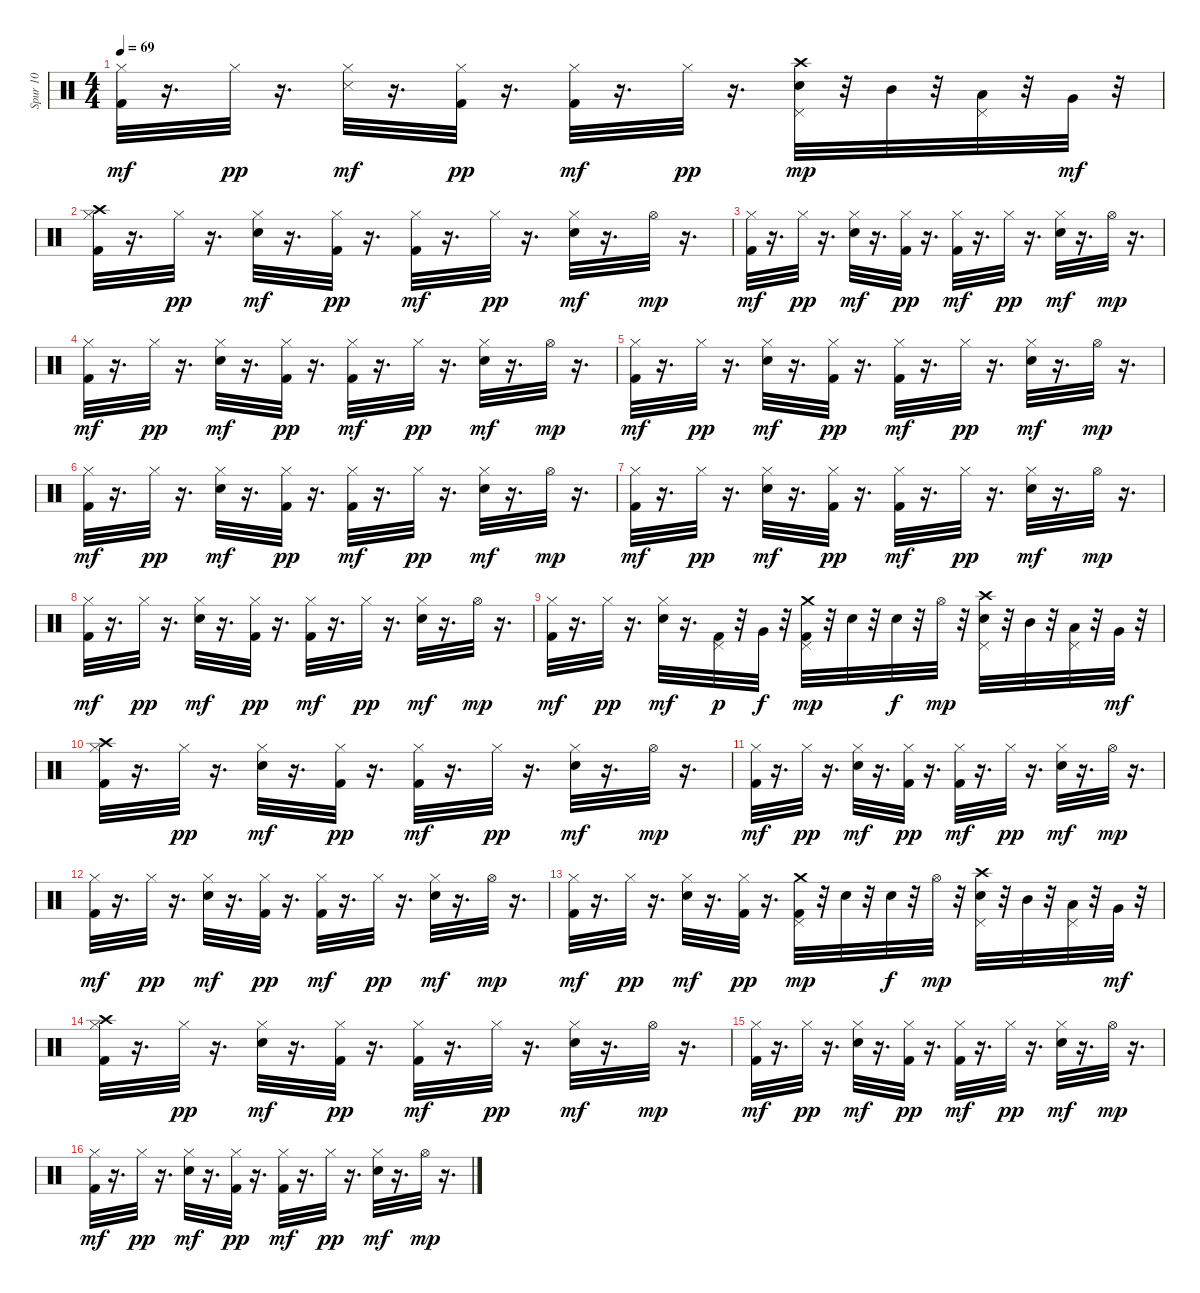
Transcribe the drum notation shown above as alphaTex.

\track ("Spur 10" "Spur 10") {instrument percussion}
\staff {score}
\articulation defaults
\ts (4 4)
\tempo 69
\clef neutral
\ks c
("Kick (hit) 2" "Hi-Hat (closed)").32{dy mf} r.16{d} "Hi-Hat (closed)".32{dy pp} r.16{d} ("Snare (side stick) 3" "Hi-Hat (closed)").32{dy mf} r.16{d} ("Kick (hit) 2" "Hi-Hat (closed)").32{dy pp} r.16{d} ("Kick (hit) 2" "Hi-Hat (closed)").32{dy mf} r.16{d} "Hi-Hat (closed)".32{dy pp} r.16{d} ("Electric Snare (hit)" "Pedal Hi-Hat (hit)" "Crash high (hit)").32{dy mp} r.32 "Mid Tom (hit)".32 r.32 ("Pedal Hi-Hat (hit)" "Low Tom (hit)").32 r.32 "Very Low Tom (hit)".32{dy mf} r.32 |
("Crash high (hit)" "Kick (hit) 2" "Hi-Hat (closed)").32 r.16{d} "Hi-Hat (closed)".32{dy pp} r.16{d} ("Electric Snare (hit)" "Hi-Hat (closed)").32{dy mf} r.16{d} ("Kick (hit) 2" "Hi-Hat (closed)").32{dy pp} r.16{d} ("Kick (hit) 2" "Hi-Hat (closed)").32{dy mf} r.16{d} "Hi-Hat (closed)".32{dy pp} r.16{d} ("Electric Snare (hit)" "Hi-Hat (closed)").32{dy mf} r.16{d} "Hi-Hat (open)".32{dy mp} r.16{d} |
("Kick (hit) 2" "Hi-Hat (closed)").32{dy mf} r.16{d} "Hi-Hat (closed)".32{dy pp} r.16{d} ("Electric Snare (hit)" "Hi-Hat (closed)").32{dy mf} r.16{d} ("Kick (hit) 2" "Hi-Hat (closed)").32{dy pp} r.16{d} ("Kick (hit) 2" "Hi-Hat (closed)").32{dy mf} r.16{d} "Hi-Hat (closed)".32{dy pp} r.16{d} ("Electric Snare (hit)" "Hi-Hat (closed)").32{dy mf} r.16{d} "Hi-Hat (open)".32{dy mp} r.16{d} |
("Kick (hit) 2" "Hi-Hat (closed)").32{dy mf} r.16{d} "Hi-Hat (closed)".32{dy pp} r.16{d} ("Electric Snare (hit)" "Hi-Hat (closed)").32{dy mf} r.16{d} ("Kick (hit) 2" "Hi-Hat (closed)").32{dy pp} r.16{d} ("Kick (hit) 2" "Hi-Hat (closed)").32{dy mf} r.16{d} "Hi-Hat (closed)".32{dy pp} r.16{d} ("Electric Snare (hit)" "Hi-Hat (closed)").32{dy mf} r.16{d} "Hi-Hat (open)".32{dy mp} r.16{d} |
("Kick (hit) 2" "Hi-Hat (closed)").32{dy mf} r.16{d} "Hi-Hat (closed)".32{dy pp} r.16{d} ("Electric Snare (hit)" "Hi-Hat (closed)").32{dy mf} r.16{d} ("Kick (hit) 2" "Hi-Hat (closed)").32{dy pp} r.16{d} ("Kick (hit) 2" "Hi-Hat (closed)").32{dy mf} r.16{d} "Hi-Hat (closed)".32{dy pp} r.16{d} ("Electric Snare (hit)" "Hi-Hat (closed)").32{dy mf} r.16{d} "Hi-Hat (open)".32{dy mp} r.16{d} |
("Kick (hit) 2" "Hi-Hat (closed)").32{dy mf} r.16{d} "Hi-Hat (closed)".32{dy pp} r.16{d} ("Electric Snare (hit)" "Hi-Hat (closed)").32{dy mf} r.16{d} ("Kick (hit) 2" "Hi-Hat (closed)").32{dy pp} r.16{d} ("Kick (hit) 2" "Hi-Hat (closed)").32{dy mf} r.16{d} "Hi-Hat (closed)".32{dy pp} r.16{d} ("Electric Snare (hit)" "Hi-Hat (closed)").32{dy mf} r.16{d} "Hi-Hat (open)".32{dy mp} r.16{d} |
("Kick (hit) 2" "Hi-Hat (closed)").32{dy mf} r.16{d} "Hi-Hat (closed)".32{dy pp} r.16{d} ("Electric Snare (hit)" "Hi-Hat (closed)").32{dy mf} r.16{d} ("Kick (hit) 2" "Hi-Hat (closed)").32{dy pp} r.16{d} ("Kick (hit) 2" "Hi-Hat (closed)").32{dy mf} r.16{d} "Hi-Hat (closed)".32{dy pp} r.16{d} ("Electric Snare (hit)" "Hi-Hat (closed)").32{dy mf} r.16{d} "Hi-Hat (open)".32{dy mp} r.16{d} |
("Kick (hit) 2" "Hi-Hat (closed)").32{dy mf} r.16{d} "Hi-Hat (closed)".32{dy pp} r.16{d} ("Electric Snare (hit)" "Hi-Hat (closed)").32{dy mf} r.16{d} ("Kick (hit) 2" "Hi-Hat (closed)").32{dy pp} r.16{d} ("Kick (hit) 2" "Hi-Hat (closed)").32{dy mf} r.16{d} "Hi-Hat (closed)".32{dy pp} r.16{d} ("Electric Snare (hit)" "Hi-Hat (closed)").32{dy mf} r.16{d} "Hi-Hat (open)".32{dy mp} r.16{d} |
("Kick (hit) 2" "Hi-Hat (closed)").32{dy mf} r.16{d} "Hi-Hat (closed)".32{dy pp} r.16{d} ("Electric Snare (hit)" "Hi-Hat (closed)").32{dy mf} r.16{d} ("Kick (hit) 2" "Pedal Hi-Hat (hit)").32{dy p} r.32 "Very Low Tom (hit)".32{dy f} r.32 ("Kick (hit) 2" "Pedal Hi-Hat (hit)" "Crash medium (hit)").32{dy mp} r.32 "Electric Snare (hit)".32 r.32 "Electric Snare (hit)".32{dy f} r.32 "Hi-Hat (open)".32{dy mp} r.32 ("Electric Snare (hit)" "Pedal Hi-Hat (hit)" "Crash high (hit)").32 r.32 "Mid Tom (hit)".32 r.32 ("Pedal Hi-Hat (hit)" "Low Tom (hit)").32 r.32 "Very Low Tom (hit)".32{dy mf} r.32 |
("Crash high (hit)" "Kick (hit) 2" "Hi-Hat (closed)").32 r.16{d} "Hi-Hat (closed)".32{dy pp} r.16{d} ("Electric Snare (hit)" "Hi-Hat (closed)").32{dy mf} r.16{d} ("Kick (hit) 2" "Hi-Hat (closed)").32{dy pp} r.16{d} ("Kick (hit) 2" "Hi-Hat (closed)").32{dy mf} r.16{d} "Hi-Hat (closed)".32{dy pp} r.16{d} ("Electric Snare (hit)" "Hi-Hat (closed)").32{dy mf} r.16{d} "Hi-Hat (open)".32{dy mp} r.16{d} |
("Kick (hit) 2" "Hi-Hat (closed)").32{dy mf} r.16{d} "Hi-Hat (closed)".32{dy pp} r.16{d} ("Electric Snare (hit)" "Hi-Hat (closed)").32{dy mf} r.16{d} ("Kick (hit) 2" "Hi-Hat (closed)").32{dy pp} r.16{d} ("Kick (hit) 2" "Hi-Hat (closed)").32{dy mf} r.16{d} "Hi-Hat (closed)".32{dy pp} r.16{d} ("Electric Snare (hit)" "Hi-Hat (closed)").32{dy mf} r.16{d} "Hi-Hat (open)".32{dy mp} r.16{d} |
("Kick (hit) 2" "Hi-Hat (closed)").32{dy mf} r.16{d} "Hi-Hat (closed)".32{dy pp} r.16{d} ("Electric Snare (hit)" "Hi-Hat (closed)").32{dy mf} r.16{d} ("Kick (hit) 2" "Hi-Hat (closed)").32{dy pp} r.16{d} ("Kick (hit) 2" "Hi-Hat (closed)").32{dy mf} r.16{d} "Hi-Hat (closed)".32{dy pp} r.16{d} ("Electric Snare (hit)" "Hi-Hat (closed)").32{dy mf} r.16{d} "Hi-Hat (open)".32{dy mp} r.16{d} |
("Kick (hit) 2" "Hi-Hat (closed)").32{dy mf} r.16{d} "Hi-Hat (closed)".32{dy pp} r.16{d} ("Electric Snare (hit)" "Hi-Hat (closed)").32{dy mf} r.16{d} ("Kick (hit) 2" "Hi-Hat (closed)").32{dy pp} r.16{d} ("Kick (hit) 2" "Pedal Hi-Hat (hit)" "Crash medium (hit)").32{dy mp} r.32 "Electric Snare (hit)".32 r.32 "Electric Snare (hit)".32{dy f} r.32 "Hi-Hat (open)".32{dy mp} r.32 ("Electric Snare (hit)" "Pedal Hi-Hat (hit)" "Crash high (hit)").32 r.32 "Mid Tom (hit)".32 r.32 ("Pedal Hi-Hat (hit)" "Low Tom (hit)").32 r.32 "Very Low Tom (hit)".32{dy mf} r.32 |
("Crash high (hit)" "Kick (hit) 2" "Hi-Hat (closed)").32 r.16{d} "Hi-Hat (closed)".32{dy pp} r.16{d} ("Electric Snare (hit)" "Hi-Hat (closed)").32{dy mf} r.16{d} ("Kick (hit) 2" "Hi-Hat (closed)").32{dy pp} r.16{d} ("Kick (hit) 2" "Hi-Hat (closed)").32{dy mf} r.16{d} "Hi-Hat (closed)".32{dy pp} r.16{d} ("Electric Snare (hit)" "Hi-Hat (closed)").32{dy mf} r.16{d} "Hi-Hat (open)".32{dy mp} r.16{d} |
("Kick (hit) 2" "Hi-Hat (closed)").32{dy mf} r.16{d} "Hi-Hat (closed)".32{dy pp} r.16{d} ("Electric Snare (hit)" "Hi-Hat (closed)").32{dy mf} r.16{d} ("Kick (hit) 2" "Hi-Hat (closed)").32{dy pp} r.16{d} ("Kick (hit) 2" "Hi-Hat (closed)").32{dy mf} r.16{d} "Hi-Hat (closed)".32{dy pp} r.16{d} ("Electric Snare (hit)" "Hi-Hat (closed)").32{dy mf} r.16{d} "Hi-Hat (open)".32{dy mp} r.16{d} |
("Kick (hit) 2" "Hi-Hat (closed)").32{dy mf} r.16{d} "Hi-Hat (closed)".32{dy pp} r.16{d} ("Electric Snare (hit)" "Hi-Hat (closed)").32{dy mf} r.16{d} ("Kick (hit) 2" "Hi-Hat (closed)").32{dy pp} r.16{d} ("Kick (hit) 2" "Hi-Hat (closed)").32{dy mf} r.16{d} "Hi-Hat (closed)".32{dy pp} r.16{d} ("Electric Snare (hit)" "Hi-Hat (closed)").32{dy mf} r.16{d} "Hi-Hat (open)".32{dy mp} r.16{d}
